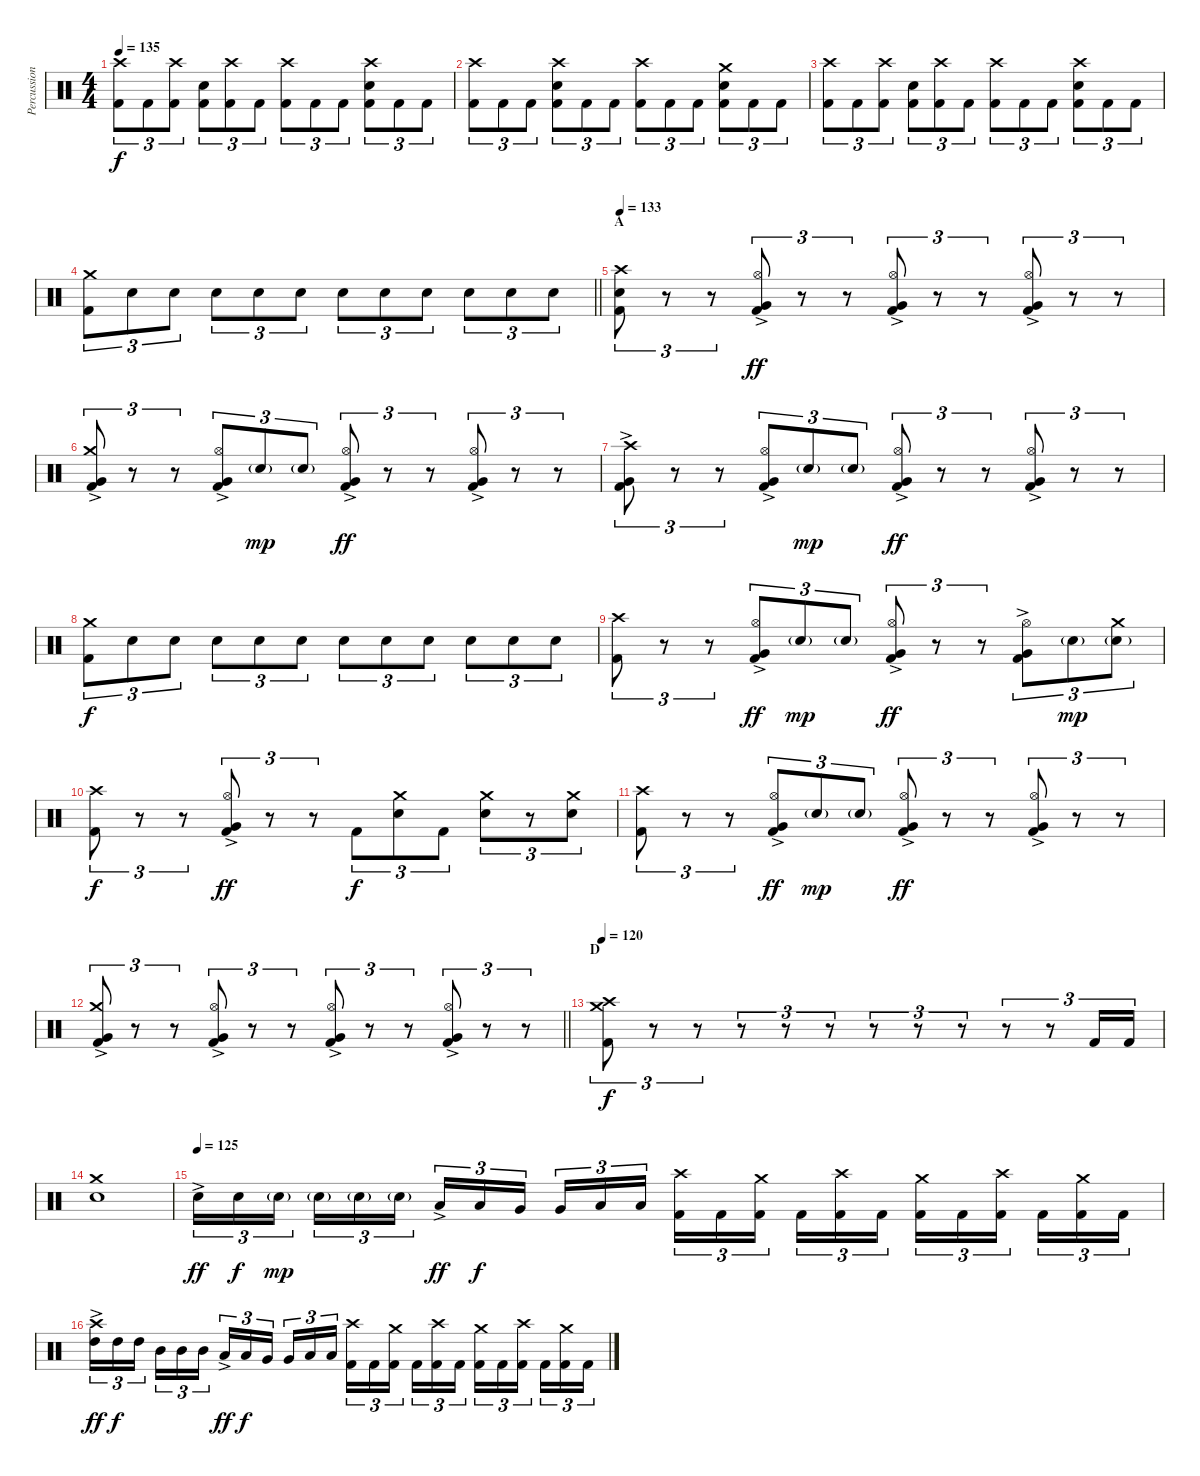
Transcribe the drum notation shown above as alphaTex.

\track ("Percussion" "Percussion") {instrument percussion}
\staff {score}
\articulation defaults
\ts (4 4)
\tempo 135
\clef neutral
\ks c
("Crash high (hit)" "Kick (hit) 2").8{tu (3 2) dy f} "Kick (hit) 2".8{tu (3 2)} ("Crash high (hit)" "Kick (hit) 2").8{tu (3 2)} ("Electric Snare (hit)" "Kick (hit) 2").8{tu (3 2)} ("Crash high (hit)" "Kick (hit) 2").8{tu (3 2)} "Kick (hit) 2".8{tu (3 2)} ("Crash high (hit)" "Kick (hit) 2").8{tu (3 2)} "Kick (hit) 2".8{tu (3 2)} "Kick (hit) 2".8{tu (3 2)} ("Crash high (hit)" "Electric Snare (hit)" "Kick (hit) 2").8{tu (3 2)} "Kick (hit) 2".8{tu (3 2)} "Kick (hit) 2".8{tu (3 2)} |
("Crash high (hit)" "Kick (hit) 2").8{tu (3 2)} "Kick (hit) 2".8{tu (3 2)} "Kick (hit) 2".8{tu (3 2)} ("Crash high (hit)" "Electric Snare (hit)" "Kick (hit) 2").8{tu (3 2)} "Kick (hit) 2".8{tu (3 2)} "Kick (hit) 2".8{tu (3 2)} ("Crash high (hit)" "Kick (hit) 2").8{tu (3 2)} "Kick (hit) 2".8{tu (3 2)} "Kick (hit) 2".8{tu (3 2)} ("Crash medium (hit)" "Electric Snare (hit)" "Kick (hit) 2").8{tu (3 2)} "Kick (hit) 2".8{tu (3 2)} "Kick (hit) 2".8{tu (3 2)} |
("Crash high (hit)" "Kick (hit) 2").8{tu (3 2)} "Kick (hit) 2".8{tu (3 2)} ("Crash high (hit)" "Kick (hit) 2").8{tu (3 2)} ("Electric Snare (hit)" "Kick (hit) 2").8{tu (3 2)} ("Crash high (hit)" "Kick (hit) 2").8{tu (3 2)} "Kick (hit) 2".8{tu (3 2)} ("Crash high (hit)" "Kick (hit) 2").8{tu (3 2)} "Kick (hit) 2".8{tu (3 2)} "Kick (hit) 2".8{tu (3 2)} ("Crash high (hit)" "Electric Snare (hit)" "Kick (hit) 2").8{tu (3 2)} "Kick (hit) 2".8{tu (3 2)} "Kick (hit) 2".8{tu (3 2)} |
\barLineRight lightlight
("Crash medium (hit)" "Kick (hit) 2").8{tu (3 2)} "Electric Snare (hit)".8{tu (3 2)} "Electric Snare (hit)".8{tu (3 2)} "Electric Snare (hit)".8{tu (3 2)} "Electric Snare (hit)".8{tu (3 2)} "Electric Snare (hit)".8{tu (3 2)} "Electric Snare (hit)".8{tu (3 2)} "Electric Snare (hit)".8{tu (3 2)} "Electric Snare (hit)".8{tu (3 2)} "Electric Snare (hit)".8{tu (3 2)} "Electric Snare (hit)".8{tu (3 2)} "Electric Snare (hit)".8{tu (3 2)} |
\section ("" "A")
\tempo 133
("Crash high (hit)" "Electric Snare (hit)" "Kick (hit) 2").8{tu (3 2)} r.8{tu (3 2)} r.8{tu (3 2)} ("Hi-Hat (open)" "Very Low Tom (hit)"{ac} "Kick (hit) 2").8{tu (3 2) dy ff} r.8{tu (3 2)} r.8{tu (3 2)} ("Hi-Hat (open)" "Very Low Tom (hit)"{ac} "Kick (hit) 2").8{tu (3 2)} r.8{tu (3 2)} r.8{tu (3 2)} ("Hi-Hat (open)" "Very Low Tom (hit)"{ac} "Kick (hit) 2").8{tu (3 2)} r.8{tu (3 2)} r.8{tu (3 2)} |
("Crash medium (hit)" "Very Low Tom (hit)"{ac} "Kick (hit) 2").8{tu (3 2)} r.8{tu (3 2)} r.8{tu (3 2)} ("Hi-Hat (open)" "Very Low Tom (hit)"{ac} "Kick (hit) 2").8{tu (3 2)} "Electric Snare (hit)"{g}.8{tu (3 2) dy mp} "Electric Snare (hit)"{g}.8{tu (3 2)} ("Hi-Hat (open)" "Very Low Tom (hit)"{ac} "Kick (hit) 2").8{tu (3 2) dy ff} r.8{tu (3 2)} r.8{tu (3 2)} ("Hi-Hat (open)" "Very Low Tom (hit)"{ac} "Kick (hit) 2").8{tu (3 2)} r.8{tu (3 2)} r.8{tu (3 2)} |
("Crash high (hit)" "Very Low Tom (hit)"{ac} "Kick (hit) 2").8{tu (3 2)} r.8{tu (3 2)} r.8{tu (3 2)} ("Hi-Hat (open)" "Very Low Tom (hit)"{ac} "Kick (hit) 2").8{tu (3 2)} "Electric Snare (hit)"{g}.8{tu (3 2) dy mp} "Electric Snare (hit)"{g}.8{tu (3 2)} ("Hi-Hat (open)" "Very Low Tom (hit)"{ac} "Kick (hit) 2").8{tu (3 2) dy ff} r.8{tu (3 2)} r.8{tu (3 2)} ("Hi-Hat (open)" "Very Low Tom (hit)"{ac} "Kick (hit) 2").8{tu (3 2)} r.8{tu (3 2)} r.8{tu (3 2)} |
("Crash medium (hit)" "Kick (hit) 2").8{tu (3 2) dy f} "Electric Snare (hit)".8{tu (3 2)} "Electric Snare (hit)".8{tu (3 2)} "Electric Snare (hit)".8{tu (3 2)} "Electric Snare (hit)".8{tu (3 2)} "Electric Snare (hit)".8{tu (3 2)} "Electric Snare (hit)".8{tu (3 2)} "Electric Snare (hit)".8{tu (3 2)} "Electric Snare (hit)".8{tu (3 2)} "Electric Snare (hit)".8{tu (3 2)} "Electric Snare (hit)".8{tu (3 2)} "Electric Snare (hit)".8{tu (3 2)} |
("Crash high (hit)" "Kick (hit) 2").8{tu (3 2)} r.8{tu (3 2)} r.8{tu (3 2)} ("Hi-Hat (open)" "Very Low Tom (hit)"{ac} "Kick (hit) 2").8{tu (3 2) dy ff} "Electric Snare (hit)"{g}.8{tu (3 2) dy mp} "Electric Snare (hit)"{g}.8{tu (3 2)} ("Hi-Hat (open)" "Very Low Tom (hit)"{ac} "Kick (hit) 2").8{tu (3 2) dy ff} r.8{tu (3 2)} r.8{tu (3 2)} ("Hi-Hat (open)" "Very Low Tom (hit)"{ac} "Kick (hit) 2").8{tu (3 2)} "Electric Snare (hit)"{g}.8{tu (3 2) dy mp} ("Crash medium (hit)" "Electric Snare (hit)"{g}).8{tu (3 2)} |
("Crash high (hit)" "Kick (hit) 2").8{tu (3 2) dy f} r.8{tu (3 2)} r.8{tu (3 2)} ("Hi-Hat (open)" "Very Low Tom (hit)"{ac} "Kick (hit) 2").8{tu (3 2) dy ff} r.8{tu (3 2)} r.8{tu (3 2)} "Kick (hit) 2".8{tu (3 2) dy f} ("Crash medium (hit)" "Electric Snare (hit)").8{tu (3 2)} "Kick (hit) 2".8{tu (3 2)} ("Crash medium (hit)" "Electric Snare (hit)").8{tu (3 2)} r.8{tu (3 2)} ("Crash medium (hit)" "Electric Snare (hit)").8{tu (3 2)} |
("Crash high (hit)" "Kick (hit) 2").8{tu (3 2)} r.8{tu (3 2)} r.8{tu (3 2)} ("Hi-Hat (open)" "Very Low Tom (hit)"{ac} "Kick (hit) 2").8{tu (3 2) dy ff} "Electric Snare (hit)"{g}.8{tu (3 2) dy mp} "Electric Snare (hit)"{g}.8{tu (3 2)} ("Hi-Hat (open)" "Very Low Tom (hit)"{ac} "Kick (hit) 2").8{tu (3 2) dy ff} r.8{tu (3 2)} r.8{tu (3 2)} ("Hi-Hat (open)" "Very Low Tom (hit)"{ac} "Kick (hit) 2").8{tu (3 2)} r.8{tu (3 2)} r.8{tu (3 2)} |
\barLineRight lightlight
("Crash medium (hit)" "Very Low Tom (hit)"{ac} "Kick (hit) 2").8{tu (3 2)} r.8{tu (3 2)} r.8{tu (3 2)} ("Hi-Hat (open)" "Very Low Tom (hit)"{ac} "Kick (hit) 2").8{tu (3 2)} r.8{tu (3 2)} r.8{tu (3 2)} ("Hi-Hat (open)" "Very Low Tom (hit)"{ac} "Kick (hit) 2").8{tu (3 2)} r.8{tu (3 2)} r.8{tu (3 2)} ("Hi-Hat (open)" "Very Low Tom (hit)"{ac} "Kick (hit) 2").8{tu (3 2)} r.8{tu (3 2)} r.8{tu (3 2)} |
\section ("" "D")
\tempo 120
("Crash medium (hit)" "Crash high (hit)" "Kick (hit) 2").8{tu (3 2) dy f} r.8{tu (3 2)} r.8{tu (3 2)} r.8{tu (3 2)} r.8{tu (3 2)} r.8{tu (3 2)} r.8{tu (3 2)} r.8{tu (3 2)} r.8{tu (3 2)} r.8{tu (3 2)} r.8{tu (3 2)} "Kick (hit) 2".16{tu (3 2)} "Kick (hit) 2".16{tu (3 2)} |
("Crash medium (hit)" "Electric Snare (hit)").1 |
\tempo (125)
"Electric Snare (hit)"{ac}.16{tu (3 2) dy ff} "Electric Snare (hit)".16{tu (3 2) dy f} "Electric Snare (hit)"{g}.16{tu (3 2) dy mp beam splitsecondary} "Electric Snare (hit)"{g}.16{tu (3 2)} "Electric Snare (hit)"{g}.16{tu (3 2)} "Electric Snare (hit)"{g}.16{tu (3 2)} "Low Tom (hit)"{ac}.16{tu (3 2) dy ff} "Low Tom (hit)".16{tu (3 2) dy f} "Very Low Tom (hit)".16{tu (3 2) beam splitsecondary} "Very Low Tom (hit)".16{tu (3 2)} "Low Floor Tom (hit)".16{tu (3 2)} "Low Floor Tom (hit)".16{tu (3 2)} ("Crash high (hit)" "Kick (hit) 2").16{tu (3 2)} "Kick (hit) 2".16{tu (3 2)} ("Crash medium (hit)" "Kick (hit) 2").16{tu (3 2) beam splitsecondary} "Kick (hit) 2".16{tu (3 2)} ("Crash high (hit)" "Kick (hit) 2").16{tu (3 2)} "Kick (hit) 2".16{tu (3 2)} ("Crash medium (hit)" "Kick (hit) 2").16{tu (3 2)} "Kick (hit) 2".16{tu (3 2)} ("Crash high (hit)" "Kick (hit) 2").16{tu (3 2) beam splitsecondary} "Kick (hit) 2".16{tu (3 2)} ("Crash medium (hit)" "Kick (hit) 2").16{tu (3 2)} "Kick (hit) 2".16{tu (3 2)} |
("Crash high (hit)" "High Tom (hit)"{ac}).16{tu (3 2) dy ff} "High Tom (hit)".16{tu (3 2) dy f} "High Tom (hit)".16{tu (3 2) beam splitsecondary} "Mid Tom (hit)".16{tu (3 2)} "Mid Tom (hit)".16{tu (3 2)} "Mid Tom (hit)".16{tu (3 2)} "Low Tom (hit)"{ac}.16{tu (3 2) dy ff} "Low Tom (hit)".16{tu (3 2) dy f} "Very Low Tom (hit)".16{tu (3 2) beam splitsecondary} "Very Low Tom (hit)".16{tu (3 2)} "Low Floor Tom (hit)".16{tu (3 2)} "Low Floor Tom (hit)".16{tu (3 2)} ("Crash high (hit)" "Kick (hit) 2").16{tu (3 2)} "Kick (hit) 2".16{tu (3 2)} ("Crash medium (hit)" "Kick (hit) 2").16{tu (3 2) beam splitsecondary} "Kick (hit) 2".16{tu (3 2)} ("Crash high (hit)" "Kick (hit) 2").16{tu (3 2)} "Kick (hit) 2".16{tu (3 2)} ("Crash medium (hit)" "Kick (hit) 2").16{tu (3 2)} "Kick (hit) 2".16{tu (3 2)} ("Crash high (hit)" "Kick (hit) 2").16{tu (3 2) beam splitsecondary} "Kick (hit) 2".16{tu (3 2)} ("Crash medium (hit)" "Kick (hit) 2").16{tu (3 2)} "Kick (hit) 2".16{tu (3 2)}
